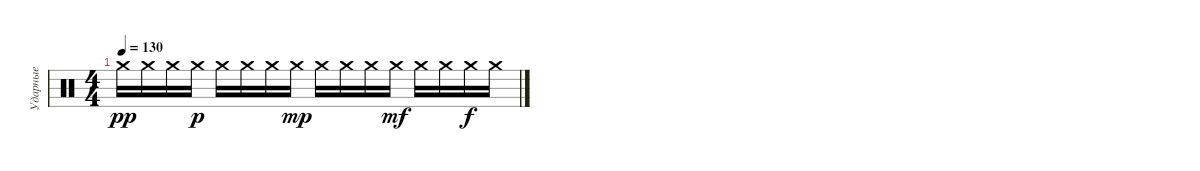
\track ("Ударные" "Ударные") {instrument percussion}
\staff {score}
\articulation defaults
\ts (4 4)
\tempo 130
\clef neutral
\ks c "Crash medium (hit)".16{dy pp} "Crash medium (hit)".16 "Crash medium (hit)".16 "Crash medium (hit)".16{dy p} "Crash medium (hit)".16 "Crash medium (hit)".16 "Crash medium (hit)".16 "Crash medium (hit)".16{dy mp} "Crash medium (hit)".16 "Crash medium (hit)".16 "Crash medium (hit)".16 "Crash medium (hit)".16{dy mf} "Crash medium (hit)".16 "Crash medium (hit)".16 "Crash medium (hit)".16{dy f} "Crash medium (hit)".16
